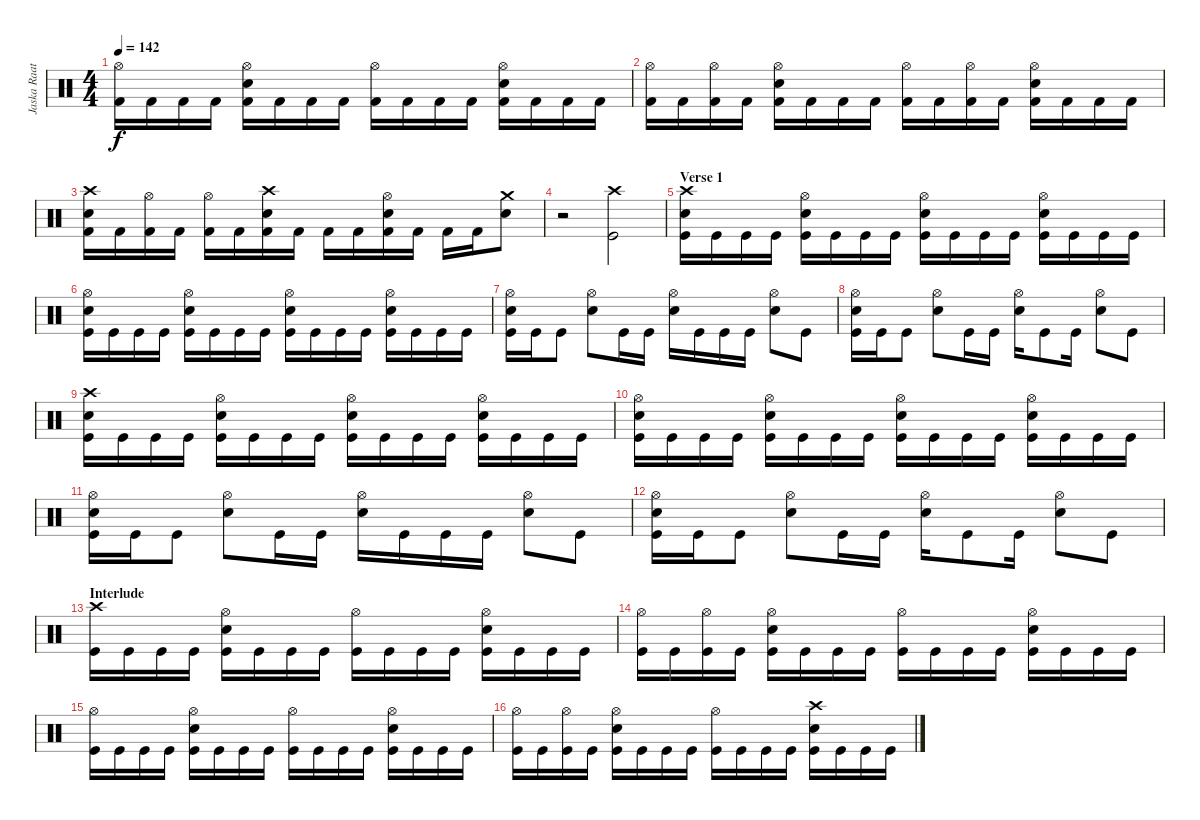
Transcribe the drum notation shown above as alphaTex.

\track ("Jaska Raatikainen" "Jaska Raat") {instrument percussion}
\staff {score}
\articulation defaults
\ts (4 4)
\tempo 142
\clef neutral
\ks c
("Hi-Hat (open)" "Kick (hit) 2").16{dy f} "Kick (hit) 2".16 "Kick (hit) 2".16 "Kick (hit) 2".16 ("Hi-Hat (open)" "Electric Snare (hit)" "Kick (hit) 2").16 "Kick (hit) 2".16 "Kick (hit) 2".16 "Kick (hit) 2".16 ("Hi-Hat (open)" "Kick (hit) 2").16 "Kick (hit) 2".16 "Kick (hit) 2".16 "Kick (hit) 2".16 ("Hi-Hat (open)" "Electric Snare (hit)" "Kick (hit) 2").16 "Kick (hit) 2".16 "Kick (hit) 2".16 "Kick (hit) 2".16 |
("Hi-Hat (open)" "Kick (hit) 2").16 "Kick (hit) 2".16 ("Hi-Hat (open)" "Kick (hit) 2").16 "Kick (hit) 2".16 ("Hi-Hat (open)" "Electric Snare (hit)" "Kick (hit) 2").16 "Kick (hit) 2".16 "Kick (hit) 2".16 "Kick (hit) 2".16 ("Hi-Hat (open)" "Kick (hit) 2").16 "Kick (hit) 2".16 ("Hi-Hat (open)" "Kick (hit) 2").16 "Kick (hit) 2".16 ("Hi-Hat (open)" "Electric Snare (hit)" "Kick (hit) 2").16 "Kick (hit) 2".16 "Kick (hit) 2".16 "Kick (hit) 2".16 |
("Crash high (hit)" "Electric Snare (hit)" "Kick (hit) 2").16 "Kick (hit) 2".16 ("Hi-Hat (open)" "Kick (hit) 2").16 "Kick (hit) 2".16 ("Hi-Hat (open)" "Kick (hit) 2").16 "Kick (hit) 2".16 ("Crash high (hit)" "Electric Snare (hit)" "Kick (hit) 2").16 "Kick (hit) 2".16 "Kick (hit) 2".16 "Kick (hit) 2".16 ("Hi-Hat (open)" "Electric Snare (hit)" "Kick (hit) 2").16 "Kick (hit) 2".16 "Kick (hit) 2".16 "Kick (hit) 2".16 ("Crash medium (hit)" "Electric Snare (hit)").8 |
r.2 ("Crash high (hit)" "Kick (hit)").2 |
\section ("" "Verse 1")
("Crash high (hit)" "Snare (hit) 2" "Kick (hit)").16 "Kick (hit)".16 "Kick (hit)".16 "Kick (hit)".16 ("Hi-Hat (open)" "Snare (hit) 2" "Kick (hit)").16 "Kick (hit)".16 "Kick (hit)".16 "Kick (hit)".16 ("Hi-Hat (open)" "Snare (hit) 2" "Kick (hit)").16 "Kick (hit)".16 "Kick (hit)".16 "Kick (hit)".16 ("Hi-Hat (open)" "Snare (hit) 2" "Kick (hit)").16 "Kick (hit)".16 "Kick (hit)".16 "Kick (hit)".16 |
("Hi-Hat (open)" "Snare (hit) 2" "Kick (hit)").16 "Kick (hit)".16 "Kick (hit)".16 "Kick (hit)".16 ("Hi-Hat (open)" "Snare (hit) 2" "Kick (hit)").16 "Kick (hit)".16 "Kick (hit)".16 "Kick (hit)".16 ("Hi-Hat (open)" "Snare (hit) 2" "Kick (hit)").16 "Kick (hit)".16 "Kick (hit)".16 "Kick (hit)".16 ("Hi-Hat (open)" "Snare (hit) 2" "Kick (hit)").16 "Kick (hit)".16 "Kick (hit)".16 "Kick (hit)".16 |
("Hi-Hat (open)" "Snare (hit) 2" "Kick (hit)").16 "Kick (hit)".16 "Kick (hit)".8 ("Hi-Hat (open)" "Snare (hit) 2").8 "Kick (hit)".16 "Kick (hit)".16 ("Hi-Hat (open)" "Snare (hit) 2").16 "Kick (hit)".16 "Kick (hit)".16 "Kick (hit)".16 ("Hi-Hat (open)" "Snare (hit) 2").8 "Kick (hit)".8 |
("Hi-Hat (open)" "Snare (hit) 2" "Kick (hit)").16 "Kick (hit)".16 "Kick (hit)".8 ("Hi-Hat (open)" "Snare (hit) 2").8 "Kick (hit)".16 "Kick (hit)".16 ("Hi-Hat (open)" "Snare (hit) 2").16 "Kick (hit)".8 "Kick (hit)".16 ("Hi-Hat (open)" "Snare (hit) 2").8 "Kick (hit)".8 |
("Crash high (hit)" "Snare (hit) 2" "Kick (hit)").16 "Kick (hit)".16 "Kick (hit)".16 "Kick (hit)".16 ("Hi-Hat (open)" "Snare (hit) 2" "Kick (hit)").16 "Kick (hit)".16 "Kick (hit)".16 "Kick (hit)".16 ("Hi-Hat (open)" "Snare (hit) 2" "Kick (hit)").16 "Kick (hit)".16 "Kick (hit)".16 "Kick (hit)".16 ("Hi-Hat (open)" "Snare (hit) 2" "Kick (hit)").16 "Kick (hit)".16 "Kick (hit)".16 "Kick (hit)".16 |
("Hi-Hat (open)" "Snare (hit) 2" "Kick (hit)").16 "Kick (hit)".16 "Kick (hit)".16 "Kick (hit)".16 ("Hi-Hat (open)" "Snare (hit) 2" "Kick (hit)").16 "Kick (hit)".16 "Kick (hit)".16 "Kick (hit)".16 ("Hi-Hat (open)" "Snare (hit) 2" "Kick (hit)").16 "Kick (hit)".16 "Kick (hit)".16 "Kick (hit)".16 ("Hi-Hat (open)" "Snare (hit) 2" "Kick (hit)").16 "Kick (hit)".16 "Kick (hit)".16 "Kick (hit)".16 |
("Hi-Hat (open)" "Snare (hit) 2" "Kick (hit)").16 "Kick (hit)".16 "Kick (hit)".8 ("Hi-Hat (open)" "Snare (hit) 2").8 "Kick (hit)".16 "Kick (hit)".16 ("Hi-Hat (open)" "Snare (hit) 2").16 "Kick (hit)".16 "Kick (hit)".16 "Kick (hit)".16 ("Hi-Hat (open)" "Snare (hit) 2").8 "Kick (hit)".8 |
("Hi-Hat (open)" "Snare (hit) 2" "Kick (hit)").16 "Kick (hit)".16 "Kick (hit)".8 ("Hi-Hat (open)" "Snare (hit) 2").8 "Kick (hit)".16 "Kick (hit)".16 ("Hi-Hat (open)" "Snare (hit) 2").16 "Kick (hit)".8 "Kick (hit)".16 ("Hi-Hat (open)" "Snare (hit) 2").8 "Kick (hit)".8 |
\section ("" "Interlude")
("Crash high (hit)" "Kick (hit)").16 "Kick (hit)".16 "Kick (hit)".16 "Kick (hit)".16 ("Hi-Hat (open)" "Snare (hit) 2" "Kick (hit)").16 "Kick (hit)".16 "Kick (hit)".16 "Kick (hit)".16 ("Hi-Hat (open)" "Kick (hit)").16 "Kick (hit)".16 "Kick (hit)".16 "Kick (hit)".16 ("Hi-Hat (open)" "Snare (hit) 2" "Kick (hit)").16 "Kick (hit)".16 "Kick (hit)".16 "Kick (hit)".16 |
("Hi-Hat (open)" "Kick (hit)").16 "Kick (hit)".16 ("Hi-Hat (open)" "Kick (hit)").16 "Kick (hit)".16 ("Hi-Hat (open)" "Snare (hit) 2" "Kick (hit)").16 "Kick (hit)".16 "Kick (hit)".16 "Kick (hit)".16 ("Hi-Hat (open)" "Kick (hit)").16 "Kick (hit)".16 "Kick (hit)".16 "Kick (hit)".16 ("Hi-Hat (open)" "Snare (hit) 2" "Kick (hit)").16 "Kick (hit)".16 "Kick (hit)".16 "Kick (hit)".16 |
("Hi-Hat (open)" "Kick (hit)").16 "Kick (hit)".16 "Kick (hit)".16 "Kick (hit)".16 ("Hi-Hat (open)" "Snare (hit) 2" "Kick (hit)").16 "Kick (hit)".16 "Kick (hit)".16 "Kick (hit)".16 ("Hi-Hat (open)" "Kick (hit)").16 "Kick (hit)".16 "Kick (hit)".16 "Kick (hit)".16 ("Hi-Hat (open)" "Snare (hit) 2" "Kick (hit)").16 "Kick (hit)".16 "Kick (hit)".16 "Kick (hit)".16 |
("Hi-Hat (open)" "Kick (hit)").16 "Kick (hit)".16 ("Hi-Hat (open)" "Kick (hit)").16 "Kick (hit)".16 ("Hi-Hat (open)" "Snare (hit) 2" "Kick (hit)").16 "Kick (hit)".16 "Kick (hit)".16 "Kick (hit)".16 ("Hi-Hat (open)" "Kick (hit)").16 "Kick (hit)".16 "Kick (hit)".16 "Kick (hit)".16 ("Crash high (hit)" "Snare (hit) 2" "Kick (hit)").16 "Kick (hit)".16 "Kick (hit)".16 "Kick (hit)".16
